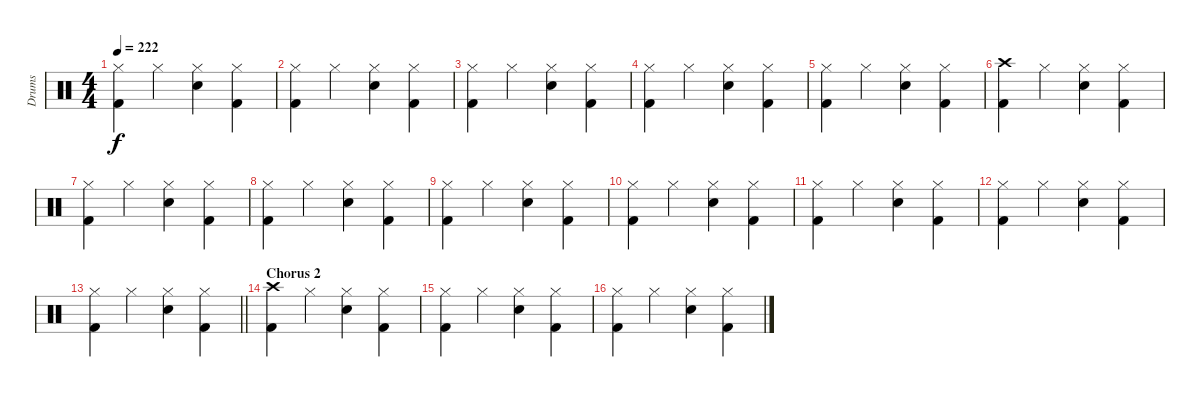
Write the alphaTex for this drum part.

\track ("Drums" "Drums") {instrument percussion}
\staff {score}
\articulation defaults
\ts (4 4)
\tempo 222
\clef neutral
\ks c
("Hi-Hat (closed)" "Kick (hit) 2").4{dy f} "Hi-Hat (closed)".4 ("Hi-Hat (closed)" "Electric Snare (hit)").4 ("Hi-Hat (closed)" "Kick (hit) 2").4 |
("Hi-Hat (closed)" "Kick (hit) 2").4 "Hi-Hat (closed)".4 ("Hi-Hat (closed)" "Electric Snare (hit)").4 ("Hi-Hat (closed)" "Kick (hit) 2").4 |
("Hi-Hat (closed)" "Kick (hit) 2").4 "Hi-Hat (closed)".4 ("Hi-Hat (closed)" "Electric Snare (hit)").4 ("Hi-Hat (closed)" "Kick (hit) 2").4 |
("Hi-Hat (closed)" "Kick (hit) 2").4 "Hi-Hat (closed)".4 ("Hi-Hat (closed)" "Electric Snare (hit)").4 ("Hi-Hat (closed)" "Kick (hit) 2").4 |
("Hi-Hat (closed)" "Kick (hit) 2").4 "Hi-Hat (closed)".4 ("Hi-Hat (closed)" "Electric Snare (hit)").4 ("Hi-Hat (closed)" "Kick (hit) 2").4 |
("Crash high (hit)" "Kick (hit) 2").4 "Hi-Hat (closed)".4 ("Hi-Hat (closed)" "Electric Snare (hit)").4 ("Hi-Hat (closed)" "Kick (hit) 2").4 |
("Hi-Hat (closed)" "Kick (hit) 2").4 "Hi-Hat (closed)".4 ("Hi-Hat (closed)" "Electric Snare (hit)").4 ("Hi-Hat (closed)" "Kick (hit) 2").4 |
("Hi-Hat (closed)" "Kick (hit) 2").4 "Hi-Hat (closed)".4 ("Hi-Hat (closed)" "Electric Snare (hit)").4 ("Hi-Hat (closed)" "Kick (hit) 2").4 |
("Hi-Hat (closed)" "Kick (hit) 2").4 "Hi-Hat (closed)".4 ("Hi-Hat (closed)" "Electric Snare (hit)").4 ("Hi-Hat (closed)" "Kick (hit) 2").4 |
("Hi-Hat (closed)" "Kick (hit) 2").4 "Hi-Hat (closed)".4 ("Hi-Hat (closed)" "Electric Snare (hit)").4 ("Hi-Hat (closed)" "Kick (hit) 2").4 |
("Hi-Hat (closed)" "Kick (hit) 2").4 "Hi-Hat (closed)".4 ("Hi-Hat (closed)" "Electric Snare (hit)").4 ("Hi-Hat (closed)" "Kick (hit) 2").4 |
("Hi-Hat (closed)" "Kick (hit) 2").4 "Hi-Hat (closed)".4 ("Hi-Hat (closed)" "Electric Snare (hit)").4 ("Hi-Hat (closed)" "Kick (hit) 2").4 |
\barLineRight lightlight
("Hi-Hat (closed)" "Kick (hit) 2").4 "Hi-Hat (closed)".4 ("Hi-Hat (closed)" "Electric Snare (hit)").4 ("Hi-Hat (closed)" "Kick (hit) 2").4 |
\section ("" "Chorus 2")
("Crash high (hit)" "Kick (hit) 2").4{volume 16} "Hi-Hat (closed)".4 ("Hi-Hat (closed)" "Electric Snare (hit)").4 ("Hi-Hat (closed)" "Kick (hit) 2").4 |
("Hi-Hat (closed)" "Kick (hit) 2").4 "Hi-Hat (closed)".4 ("Hi-Hat (closed)" "Electric Snare (hit)").4 ("Hi-Hat (closed)" "Kick (hit) 2").4 |
("Hi-Hat (closed)" "Kick (hit) 2").4 "Hi-Hat (closed)".4 ("Hi-Hat (closed)" "Electric Snare (hit)").4 ("Hi-Hat (closed)" "Kick (hit) 2").4
